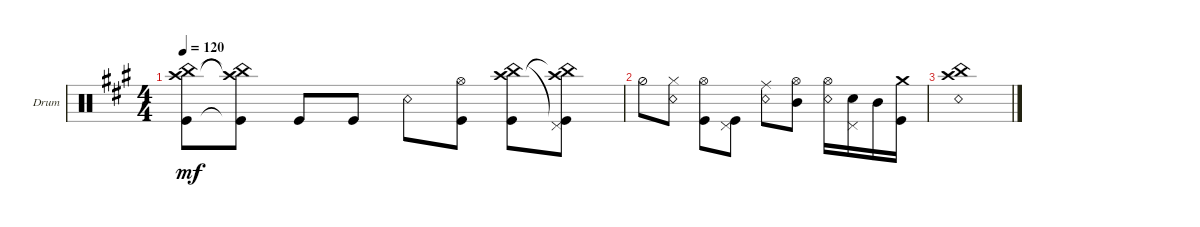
\defaultSystemsLayout 4
\bracketExtendMode groupsimilarinstruments
\firstSystemTrackNameOrientation horizontal
\otherSystemsTrackNameOrientation horizontal
\track ("Drum" "Drum") {multiBarRest instrument percussion}
\staff {score}
\articulation defaults
\ts (4 4)
\tempo 120
\clef neutral
\ks a
("Kick (hit)" "Crash high (hit)" "China (hit)").8{dy mf} ("Kick (hit)"{t} "China (hit)"{t} "Crash high (hit)"{t}).8 "Kick (hit)".8 "Kick (hit)".8 "Snare (rim shot)".8 ("Kick (hit)" "Hi-Hat (open)").8 ("Kick (hit)" "China (hit)" "Crash high (hit)").8 ("Pedal Hi-Hat (hit)" "Kick (hit)"{t} "China (hit)"{t} "Crash high (hit)"{t}).8 |
"Hi-Hat (half)".8 ("Snare (rim shot)" "Hi-Hat (closed)").8 ("Kick (hit)" "Hi-Hat (open)").8 ("Kick (hit)" "Pedal Hi-Hat (hit)").8 ("Snare (rim shot)" "Ride (middle)").8 ("Mid Tom (hit)" "Hi-Hat (open)").8 ("Snare (rim shot)" "Hi-Hat (open)").16 ("Snare (hit) 2" "Pedal Hi-Hat (hit)").16 "Mid Tom (hit)".16 ("Kick (hit)" "Crash medium (hit)").16 |
("China (hit)" "Crash high (hit)" "Snare (rim shot)").1
